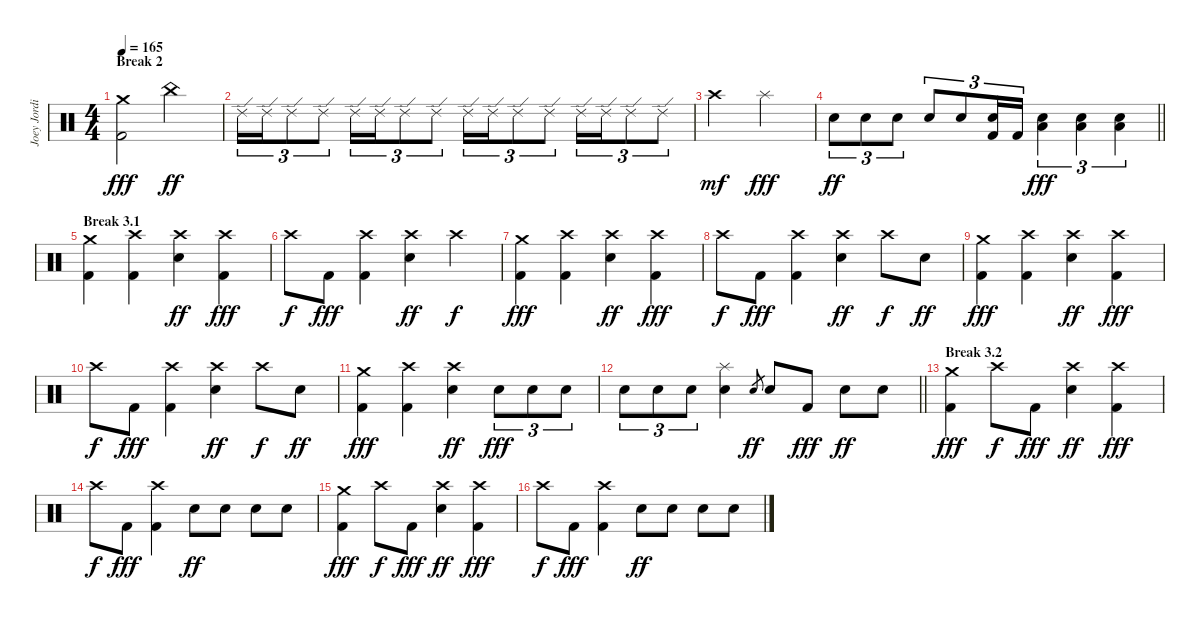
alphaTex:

\track ("Joey Jordison" "Joey Jordi") {instrument percussion}
\staff {score}
\articulation defaults
\ts (4 4)
\section ("" "Break 2")
\tempo 165
\clef neutral
\ks c
("Crash medium (hit)" "Kick (hit) 2").2{dy fff} "China (hit)".2{dy ff} |
"Ride (edge) 2".16{tu (3 2)} "Ride (edge) 2".16{tu (3 2)} "Ride (edge) 2".8{tu (3 2)} "Ride (edge) 2".8{tu (3 2)} "Ride (edge) 2".16{tu (3 2)} "Ride (edge) 2".16{tu (3 2)} "Ride (edge) 2".8{tu (3 2)} "Ride (edge) 2".8{tu (3 2)} "Ride (edge) 2".16{tu (3 2)} "Ride (edge) 2".16{tu (3 2)} "Ride (edge) 2".8{tu (3 2)} "Ride (edge) 2".8{tu (3 2)} "Ride (edge) 2".16{tu (3 2)} "Ride (edge) 2".16{tu (3 2)} "Ride (edge) 2".8{tu (3 2)} "Ride (edge) 2".8{tu (3 2)} |
"Crash high (hit)".2{dy mf} "Splash (hit)".2{dy fff} |
\barLineRight lightlight "Electric Snare (hit)".8{tu (3 2) dy ff} "Electric Snare (hit)".8{tu (3 2)} "Electric Snare (hit)".8{tu (3 2)} "Electric Snare (hit)".8{tu (3 2)} "Electric Snare (hit)".8{tu (3 2)}
("Electric Snare (hit)" "Kick (hit) 2").16{tu (3 2)} "Kick (hit) 2".16{tu (3 2)} ("Electric Snare (hit)" "Low Floor Tom (hit)").4{tu (3 2) dy fff} ("Electric Snare (hit)" "Low Floor Tom (hit)").4{tu (3 2)} ("Electric Snare (hit)" "Low Floor Tom (hit)").4{tu (3 2)} |
\section ("" "Break 3.1")
("Crash medium (hit)" "Kick (hit) 2").4 ("Crash high (hit)" "Kick (hit) 2").4 ("Crash high (hit)" "Electric Snare (hit)").4{dy ff} ("Crash high (hit)" "Kick (hit) 2").4{dy fff} |
"Crash high (hit)".8{dy f} "Kick (hit) 2".8{dy fff} ("Crash high (hit)" "Kick (hit) 2").4 ("Crash high (hit)" "Electric Snare (hit)").4{dy ff} "Crash high (hit)".4{dy f} |
("Crash medium (hit)" "Kick (hit) 2").4{dy fff} ("Crash high (hit)" "Kick (hit) 2").4 ("Crash high (hit)" "Electric Snare (hit)").4{dy ff} ("Crash high (hit)" "Kick (hit) 2").4{dy fff} |
"Crash high (hit)".8{dy f} "Kick (hit) 2".8{dy fff} ("Crash high (hit)" "Kick (hit) 2").4 ("Crash high (hit)" "Electric Snare (hit)").4{dy ff} "Crash high (hit)".8{dy f} "Electric Snare (hit)".8{dy ff} |
("Crash medium (hit)" "Kick (hit) 2").4{dy fff} ("Crash high (hit)" "Kick (hit) 2").4 ("Crash high (hit)" "Electric Snare (hit)").4{dy ff} ("Crash high (hit)" "Kick (hit) 2").4{dy fff} |
"Crash high (hit)".8{dy f} "Kick (hit) 2".8{dy fff} ("Crash high (hit)" "Kick (hit) 2").4 ("Crash high (hit)" "Electric Snare (hit)").4{dy ff} "Crash high (hit)".8{dy f} "Electric Snare (hit)".8{dy ff} |
("Crash medium (hit)" "Kick (hit) 2").4{dy fff} ("Crash high (hit)" "Kick (hit) 2").4 ("Crash high (hit)" "Electric Snare (hit)").4{dy ff} "Electric Snare (hit)".8{tu (3 2) dy fff} "Electric Snare (hit)".8{tu (3 2)} "Electric Snare (hit)".8{tu (3 2)} |
\barLineRight lightlight "Electric Snare (hit)".8{tu (3 2)} "Electric Snare (hit)".8{tu (3 2)} "Electric Snare (hit)".8{tu (3 2)}
("Splash (hit)" "Electric Snare (hit)").4 "Electric Snare (hit)".8{gr dy ff} "Electric Snare (hit)".8 "Kick (hit) 2".8{dy fff} "Electric Snare (hit)".8{dy ff} "Electric Snare (hit)".8 |
\section ("" "Break 3.2")
("Crash medium (hit)" "Kick (hit) 2").4{dy fff} "Crash high (hit)".8{dy f} "Kick (hit) 2".8{dy fff} ("Crash high (hit)" "Electric Snare (hit)").4{dy ff} ("Crash high (hit)" "Kick (hit) 2").4{dy fff} |
"Crash high (hit)".8{dy f} "Kick (hit) 2".8{dy fff} ("Crash high (hit)" "Kick (hit) 2").4 "Electric Snare (hit)".8{dy ff} "Electric Snare (hit)".8 "Electric Snare (hit)".8 "Electric Snare (hit)".8 |
("Crash medium (hit)" "Kick (hit) 2").4{dy fff} "Crash high (hit)".8{dy f} "Kick (hit) 2".8{dy fff} ("Crash high (hit)" "Electric Snare (hit)").4{dy ff} ("Crash high (hit)" "Kick (hit) 2").4{dy fff} |
"Crash high (hit)".8{dy f} "Kick (hit) 2".8{dy fff} ("Crash high (hit)" "Kick (hit) 2").4 "Electric Snare (hit)".8{dy ff} "Electric Snare (hit)".8 "Electric Snare (hit)".8 "Electric Snare (hit)".8
